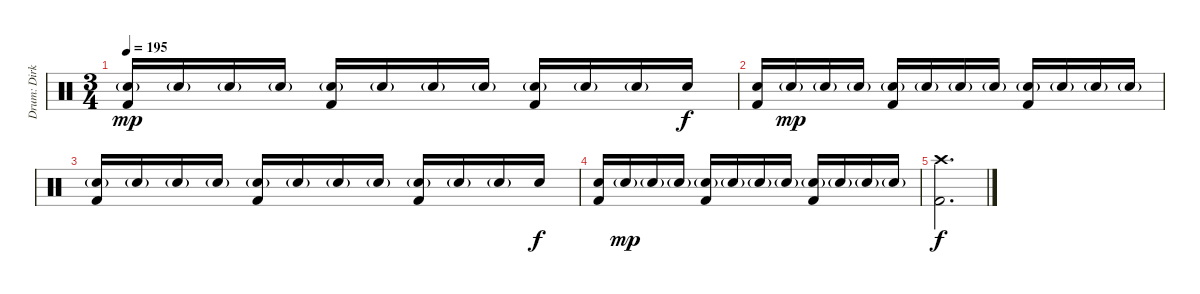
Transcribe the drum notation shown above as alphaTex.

\track ("Drum: Dirk" "Drum: Dirk") {instrument percussion}
\staff {score}
\articulation defaults
\ts (3 4)
\tempo 195
\clef neutral
\ks c
("Electric Snare (hit)"{g} "Kick (hit) 2").16{dy mp} "Electric Snare (hit)"{g}.16 "Electric Snare (hit)"{g}.16 "Electric Snare (hit)"{g}.16 ("Electric Snare (hit)"{g} "Kick (hit) 2").16 "Electric Snare (hit)"{g}.16 "Electric Snare (hit)"{g}.16 "Electric Snare (hit)"{g}.16 ("Electric Snare (hit)"{g} "Kick (hit) 2").16 "Electric Snare (hit)"{g}.16 "Electric Snare (hit)"{g}.16 "Electric Snare (hit)".16{dy f} |
("Electric Snare (hit)" "Kick (hit) 2").16 "Electric Snare (hit)"{g}.16{dy mp} "Electric Snare (hit)"{g}.16 "Electric Snare (hit)"{g}.16 ("Electric Snare (hit)"{g} "Kick (hit) 2").16 "Electric Snare (hit)"{g}.16 "Electric Snare (hit)"{g}.16 "Electric Snare (hit)"{g}.16 ("Electric Snare (hit)"{g} "Kick (hit) 2").16 "Electric Snare (hit)"{g}.16 "Electric Snare (hit)"{g}.16 "Electric Snare (hit)"{g}.16 |
("Electric Snare (hit)"{g} "Kick (hit) 2").16 "Electric Snare (hit)"{g}.16 "Electric Snare (hit)"{g}.16 "Electric Snare (hit)"{g}.16 ("Electric Snare (hit)"{g} "Kick (hit) 2").16 "Electric Snare (hit)"{g}.16 "Electric Snare (hit)"{g}.16 "Electric Snare (hit)"{g}.16 ("Electric Snare (hit)"{g} "Kick (hit) 2").16 "Electric Snare (hit)"{g}.16 "Electric Snare (hit)"{g}.16 "Electric Snare (hit)".16{dy f} |
("Electric Snare (hit)" "Kick (hit) 2").16 "Electric Snare (hit)"{g}.16{dy mp} "Electric Snare (hit)"{g}.16 "Electric Snare (hit)"{g}.16 ("Electric Snare (hit)"{g} "Kick (hit) 2").16 "Electric Snare (hit)"{g}.16 "Electric Snare (hit)"{g}.16 "Electric Snare (hit)"{g}.16 ("Electric Snare (hit)"{g} "Kick (hit) 2").16 "Electric Snare (hit)"{g}.16 "Electric Snare (hit)"{g}.16 "Electric Snare (hit)"{g}.16 |
("Crash high (hit)" "Kick (hit) 2").2{d dy f}
